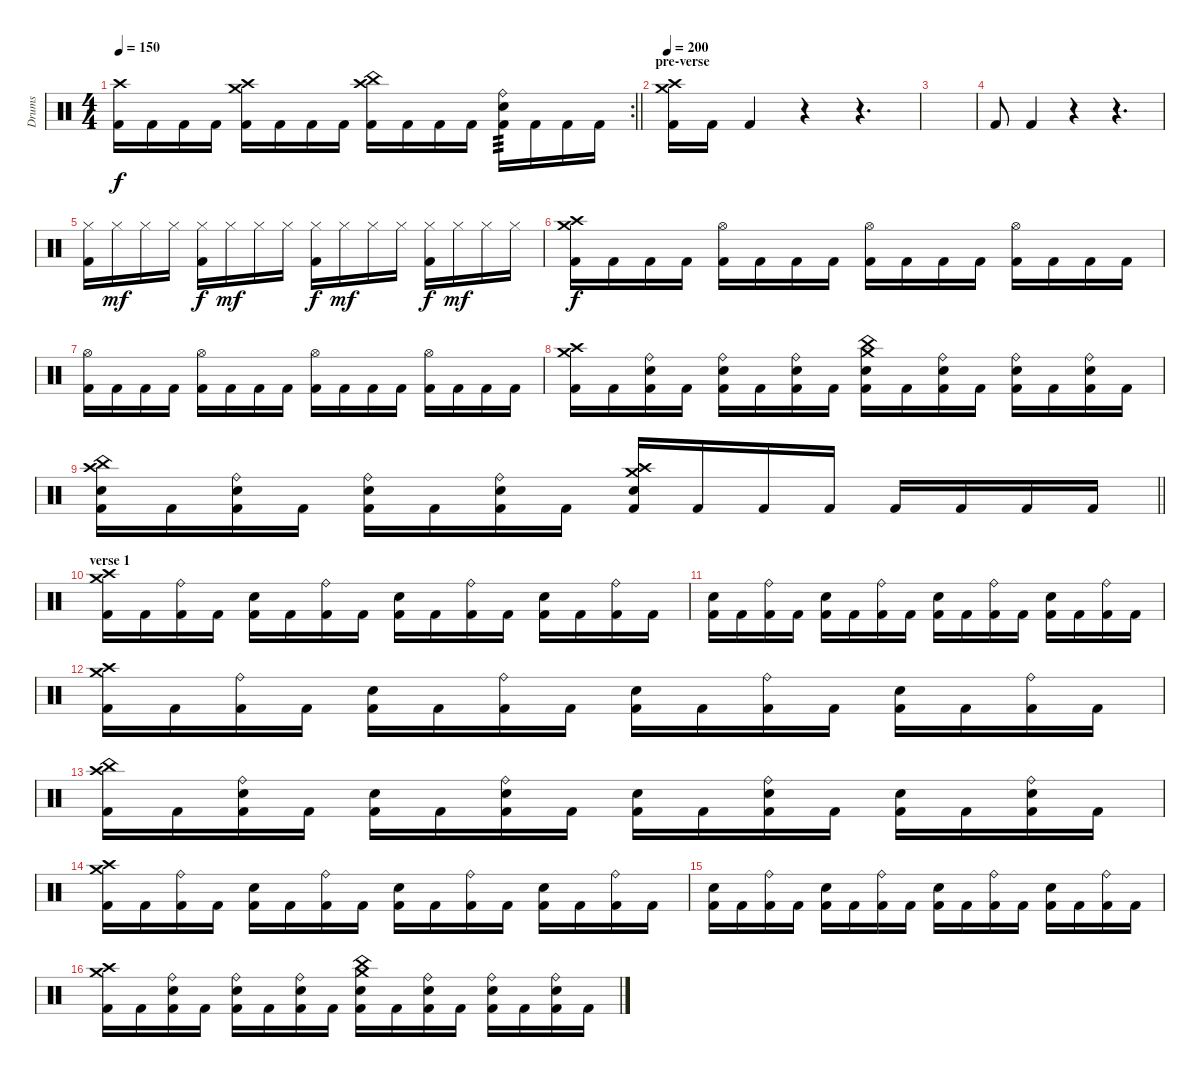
\track ("Drums" "Drums") {instrument percussion}
\staff {score}
\articulation defaults
\rc 2
\ts (4 4)
\tempo 150
\clef neutral
\barLineRight lightlight
\ks c
("Kick (hit) 2" "Crash high (hit)").16{dy f} "Kick (hit) 2".16 "Kick (hit) 2".16 "Kick (hit) 2".16 ("Kick (hit) 2" "Crash medium (hit)" "Crash high (hit)").16 "Kick (hit) 2".16 "Kick (hit) 2".16 "Kick (hit) 2".16 ("Kick (hit) 2" "China (hit)" "Crash high (hit)").16 "Kick (hit) 2".16 "Kick (hit) 2".16 "Kick (hit) 2".16 ("Electric Snare (hit)" "Kick (hit) 2" "Ride (bell)").16{tp 3} "Kick (hit) 2".16 "Kick (hit) 2".16 "Kick (hit) 2".16 |
\section ("" "pre-verse")
\tempo 200
("Kick (hit) 2" "Crash medium (hit)" "Crash high (hit)").16 "Kick (hit) 2".16 "Kick (hit) 2".4 r.4 r.4{d} |
|
"Kick (hit) 2".8 "Kick (hit) 2".4 r.4 r.4{d} |
("Kick (hit) 2" "Hi-Hat (closed)").16 "Hi-Hat (closed)".16{dy mf} "Hi-Hat (closed)".16 "Hi-Hat (closed)".16 ("Kick (hit) 2" "Hi-Hat (closed)").16{dy f} "Hi-Hat (closed)".16{dy mf} "Hi-Hat (closed)".16 "Hi-Hat (closed)".16 ("Kick (hit) 2" "Hi-Hat (closed)").16{dy f} "Hi-Hat (closed)".16{dy mf} "Hi-Hat (closed)".16 "Hi-Hat (closed)".16 ("Kick (hit) 2" "Hi-Hat (closed)").16{dy f} "Hi-Hat (closed)".16{dy mf} "Hi-Hat (closed)".16 "Hi-Hat (closed)".16 |
("Kick (hit) 2" "Crash medium (hit)" "Crash high (hit)").16{dy f} "Kick (hit) 2".16 "Kick (hit) 2".16 "Kick (hit) 2".16 ("Kick (hit) 2" "Hi-Hat (open)").16 "Kick (hit) 2".16 "Kick (hit) 2".16 "Kick (hit) 2".16 ("Kick (hit) 2" "Hi-Hat (open)").16 "Kick (hit) 2".16 "Kick (hit) 2".16 "Kick (hit) 2".16 ("Kick (hit) 2" "Hi-Hat (open)").16 "Kick (hit) 2".16 "Kick (hit) 2".16 "Kick (hit) 2".16 |
("Kick (hit) 2" "Hi-Hat (open)").16 "Kick (hit) 2".16 "Kick (hit) 2".16 "Kick (hit) 2".16 ("Kick (hit) 2" "Hi-Hat (open)").16 "Kick (hit) 2".16 "Kick (hit) 2".16 "Kick (hit) 2".16 ("Kick (hit) 2" "Hi-Hat (open)").16 "Kick (hit) 2".16 "Kick (hit) 2".16 "Kick (hit) 2".16 ("Kick (hit) 2" "Hi-Hat (open)").16 "Kick (hit) 2".16 "Kick (hit) 2".16 "Kick (hit) 2".16 |
("Kick (hit) 2" "Crash medium (hit)" "Crash high (hit)").16 "Kick (hit) 2".16 ("Electric Snare (hit)" "Kick (hit) 2" "Ride (bell)").16 "Kick (hit) 2".16 ("Electric Snare (hit)" "Kick (hit) 2" "Ride (bell)").16 "Kick (hit) 2".16 ("Electric Snare (hit)" "Kick (hit) 2" "Ride (bell)").16 "Kick (hit) 2".16 ("Electric Snare (hit)" "Kick (hit) 2" "Crash medium (hit)" "China (hit)").16 "Kick (hit) 2".16 ("Electric Snare (hit)" "Kick (hit) 2" "Ride (bell)").16 "Kick (hit) 2".16 ("Electric Snare (hit)" "Kick (hit) 2" "Ride (bell)").16 "Kick (hit) 2".16 ("Electric Snare (hit)" "Kick (hit) 2" "Ride (bell)").16 "Kick (hit) 2".16 |
\barLineRight lightlight
("Electric Snare (hit)" "Kick (hit) 2" "China (hit)" "Crash high (hit)").16 "Kick (hit) 2".16 ("Electric Snare (hit)" "Kick (hit) 2" "Ride (bell)").16 "Kick (hit) 2".16 ("Electric Snare (hit)" "Kick (hit) 2" "Ride (bell)").16 "Kick (hit) 2".16 ("Electric Snare (hit)" "Kick (hit) 2" "Ride (bell)").16 "Kick (hit) 2".16 ("Electric Snare (hit)" "Kick (hit) 2" "Crash high (hit)" "Crash medium (hit)").16 "Kick (hit) 2".16 "Kick (hit) 2".16 "Kick (hit) 2".16 "Kick (hit) 2".16 "Kick (hit) 2".16 "Kick (hit) 2".16 "Kick (hit) 2".16 |
\section ("" "verse 1")
("Kick (hit) 2" "Crash medium (hit)" "Crash high (hit)").16 "Kick (hit) 2".16 ("Kick (hit) 2" "Ride (bell)").16 "Kick (hit) 2".16 ("Electric Snare (hit)" "Kick (hit) 2").16 "Kick (hit) 2".16 ("Kick (hit) 2" "Ride (bell)").16 "Kick (hit) 2".16 ("Electric Snare (hit)" "Kick (hit) 2").16 "Kick (hit) 2".16 ("Kick (hit) 2" "Ride (bell)").16 "Kick (hit) 2".16 ("Electric Snare (hit)" "Kick (hit) 2").16 "Kick (hit) 2".16 ("Kick (hit) 2" "Ride (bell)").16 "Kick (hit) 2".16 |
("Electric Snare (hit)" "Kick (hit) 2").16 "Kick (hit) 2".16 ("Kick (hit) 2" "Ride (bell)").16 "Kick (hit) 2".16 ("Electric Snare (hit)" "Kick (hit) 2").16 "Kick (hit) 2".16 ("Kick (hit) 2" "Ride (bell)").16 "Kick (hit) 2".16 ("Electric Snare (hit)" "Kick (hit) 2").16 "Kick (hit) 2".16 ("Kick (hit) 2" "Ride (bell)").16 "Kick (hit) 2".16 ("Electric Snare (hit)" "Kick (hit) 2").16 "Kick (hit) 2".16 ("Kick (hit) 2" "Ride (bell)").16 "Kick (hit) 2".16 |
("Kick (hit) 2" "Crash medium (hit)" "Crash high (hit)").16 "Kick (hit) 2".16 ("Kick (hit) 2" "Ride (bell)").16 "Kick (hit) 2".16 ("Electric Snare (hit)" "Kick (hit) 2").16 "Kick (hit) 2".16 ("Kick (hit) 2" "Ride (bell)").16 "Kick (hit) 2".16 ("Electric Snare (hit)" "Kick (hit) 2").16 "Kick (hit) 2".16 ("Kick (hit) 2" "Ride (bell)").16 "Kick (hit) 2".16 ("Electric Snare (hit)" "Kick (hit) 2").16 "Kick (hit) 2".16 ("Kick (hit) 2" "Ride (bell)").16 "Kick (hit) 2".16 |
("Kick (hit) 2" "China (hit)" "Crash high (hit)").16 "Kick (hit) 2".16 ("Electric Snare (hit)" "Kick (hit) 2" "Ride (bell)").16 "Kick (hit) 2".16 ("Electric Snare (hit)" "Kick (hit) 2").16 "Kick (hit) 2".16 ("Electric Snare (hit)" "Kick (hit) 2" "Ride (bell)").16 "Kick (hit) 2".16 ("Electric Snare (hit)" "Kick (hit) 2").16 "Kick (hit) 2".16 ("Electric Snare (hit)" "Kick (hit) 2" "Ride (bell)").16 "Kick (hit) 2".16 ("Electric Snare (hit)" "Kick (hit) 2").16 "Kick (hit) 2".16 ("Electric Snare (hit)" "Kick (hit) 2" "Ride (bell)").16 "Kick (hit) 2".16 |
("Kick (hit) 2" "Crash medium (hit)" "Crash high (hit)").16 "Kick (hit) 2".16 ("Kick (hit) 2" "Ride (bell)").16 "Kick (hit) 2".16 ("Electric Snare (hit)" "Kick (hit) 2").16 "Kick (hit) 2".16 ("Kick (hit) 2" "Ride (bell)").16 "Kick (hit) 2".16 ("Electric Snare (hit)" "Kick (hit) 2").16 "Kick (hit) 2".16 ("Kick (hit) 2" "Ride (bell)").16 "Kick (hit) 2".16 ("Electric Snare (hit)" "Kick (hit) 2").16 "Kick (hit) 2".16 ("Kick (hit) 2" "Ride (bell)").16 "Kick (hit) 2".16 |
("Electric Snare (hit)" "Kick (hit) 2").16 "Kick (hit) 2".16 ("Kick (hit) 2" "Ride (bell)").16 "Kick (hit) 2".16 ("Electric Snare (hit)" "Kick (hit) 2").16 "Kick (hit) 2".16 ("Kick (hit) 2" "Ride (bell)").16 "Kick (hit) 2".16 ("Electric Snare (hit)" "Kick (hit) 2").16 "Kick (hit) 2".16 ("Kick (hit) 2" "Ride (bell)").16 "Kick (hit) 2".16 ("Electric Snare (hit)" "Kick (hit) 2").16 "Kick (hit) 2".16 ("Kick (hit) 2" "Ride (bell)").16 "Kick (hit) 2".16 |
("Kick (hit) 2" "Crash medium (hit)" "Crash high (hit)").16 "Kick (hit) 2".16 ("Electric Snare (hit)" "Kick (hit) 2" "Ride (bell)").16 "Kick (hit) 2".16 ("Electric Snare (hit)" "Kick (hit) 2" "Ride (bell)").16 "Kick (hit) 2".16 ("Electric Snare (hit)" "Kick (hit) 2" "Ride (bell)").16 "Kick (hit) 2".16 ("Electric Snare (hit)" "Kick (hit) 2" "Crash medium (hit)" "China (hit)").16 "Kick (hit) 2".16 ("Electric Snare (hit)" "Kick (hit) 2" "Ride (bell)").16 "Kick (hit) 2".16 ("Electric Snare (hit)" "Kick (hit) 2" "Ride (bell)").16 "Kick (hit) 2".16 ("Electric Snare (hit)" "Kick (hit) 2" "Ride (bell)").16 "Kick (hit) 2".16
